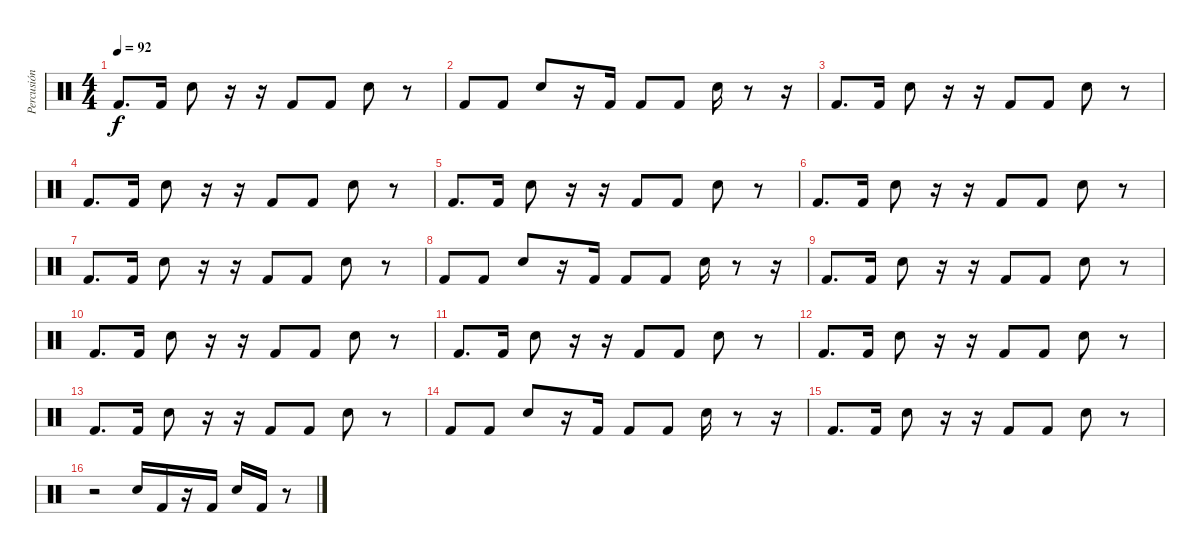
\track ("Percusión" "Percusión") {instrument percussion}
\staff {score}
\articulation defaults
\ts (4 4)
\tempo 92
\clef neutral
\ks c "Kick (hit) 2".8{d dy f} "Kick (hit) 2".16 "Snare (hit) 2".8
r.16 r.16 "Kick (hit) 2".8 "Kick (hit) 2".8 "Snare (hit) 2".8 r.8 |
"Kick (hit) 2".8 "Kick (hit) 2".8 "Snare (hit) 2".8 r.16 "Kick (hit) 2".16 "Kick (hit) 2".8 "Kick (hit) 2".8 "Snare (hit) 2".16 r.8 r.16 |
"Kick (hit) 2".8{d} "Kick (hit) 2".16 "Snare (hit) 2".8 r.16 r.16 "Kick (hit) 2".8 "Kick (hit) 2".8 "Snare (hit) 2".8 r.8 |
"Kick (hit) 2".8{d} "Kick (hit) 2".16 "Snare (hit) 2".8 r.16 r.16 "Kick (hit) 2".8 "Kick (hit) 2".8 "Snare (hit) 2".8 r.8 |
"Kick (hit) 2".8{d} "Kick (hit) 2".16 "Snare (hit) 2".8 r.16 r.16 "Kick (hit) 2".8 "Kick (hit) 2".8 "Snare (hit) 2".8 r.8 |
"Kick (hit) 2".8{d} "Kick (hit) 2".16 "Snare (hit) 2".8 r.16 r.16 "Kick (hit) 2".8 "Kick (hit) 2".8 "Snare (hit) 2".8 r.8 |
"Kick (hit) 2".8{d} "Kick (hit) 2".16 "Snare (hit) 2".8 r.16 r.16 "Kick (hit) 2".8 "Kick (hit) 2".8 "Snare (hit) 2".8 r.8 |
"Kick (hit) 2".8 "Kick (hit) 2".8 "Snare (hit) 2".8 r.16 "Kick (hit) 2".16 "Kick (hit) 2".8 "Kick (hit) 2".8 "Snare (hit) 2".16 r.8 r.16 |
"Kick (hit) 2".8{d} "Kick (hit) 2".16 "Snare (hit) 2".8 r.16 r.16 "Kick (hit) 2".8 "Kick (hit) 2".8 "Snare (hit) 2".8 r.8 |
"Kick (hit) 2".8{d} "Kick (hit) 2".16 "Snare (hit) 2".8 r.16 r.16 "Kick (hit) 2".8 "Kick (hit) 2".8 "Snare (hit) 2".8 r.8 |
"Kick (hit) 2".8{d} "Kick (hit) 2".16 "Snare (hit) 2".8 r.16 r.16 "Kick (hit) 2".8 "Kick (hit) 2".8 "Snare (hit) 2".8 r.8 |
"Kick (hit) 2".8{d} "Kick (hit) 2".16 "Snare (hit) 2".8 r.16 r.16 "Kick (hit) 2".8 "Kick (hit) 2".8 "Snare (hit) 2".8 r.8 |
"Kick (hit) 2".8{d} "Kick (hit) 2".16 "Snare (hit) 2".8 r.16 r.16 "Kick (hit) 2".8 "Kick (hit) 2".8 "Snare (hit) 2".8 r.8 |
"Kick (hit) 2".8 "Kick (hit) 2".8 "Snare (hit) 2".8 r.16 "Kick (hit) 2".16 "Kick (hit) 2".8 "Kick (hit) 2".8 "Snare (hit) 2".16 r.8 r.16 |
"Kick (hit) 2".8{d} "Kick (hit) 2".16 "Snare (hit) 2".8 r.16 r.16 "Kick (hit) 2".8 "Kick (hit) 2".8 "Snare (hit) 2".8 r.8 |
r.2 "Snare (hit) 2".16 "Kick (hit) 2".16 r.16 "Kick (hit) 2".16 "Snare (hit) 2".16 "Kick (hit) 2".16 r.8
